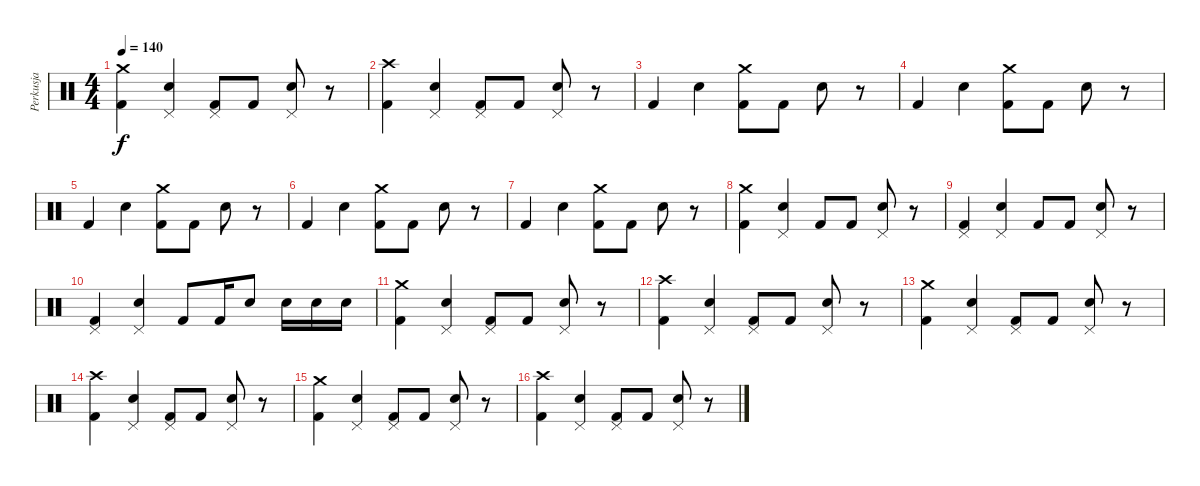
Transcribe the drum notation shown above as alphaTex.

\track ("Perkusja" "Perkusja") {instrument percussion}
\staff {score}
\articulation defaults
\ts (4 4)
\tempo 140
\clef neutral
\ks c
("Crash medium (hit)" "Kick (hit) 2").4{dy f} ("Pedal Hi-Hat (hit)" "Snare (hit) 2").4 ("Pedal Hi-Hat (hit)" "Kick (hit) 2").8 "Kick (hit) 2".8 ("Pedal Hi-Hat (hit)" "Snare (hit) 2").8 r.8 |
("Crash high (hit)" "Kick (hit) 2").4 ("Pedal Hi-Hat (hit)" "Snare (hit) 2").4 ("Pedal Hi-Hat (hit)" "Kick (hit) 2").8 "Kick (hit) 2".8 ("Pedal Hi-Hat (hit)" "Snare (hit) 2").8 r.8 |
"Kick (hit) 2".4 "Snare (hit) 2".4 ("Crash medium (hit)" "Kick (hit) 2").8 "Kick (hit) 2".8 "Snare (hit) 2".8 r.8 |
"Kick (hit) 2".4 "Snare (hit) 2".4 ("Crash medium (hit)" "Kick (hit) 2").8 "Kick (hit) 2".8 "Snare (hit) 2".8 r.8 |
"Kick (hit) 2".4 "Snare (hit) 2".4 ("Crash medium (hit)" "Kick (hit) 2").8 "Kick (hit) 2".8 "Snare (hit) 2".8 r.8 |
"Kick (hit) 2".4 "Snare (hit) 2".4 ("Crash medium (hit)" "Kick (hit) 2").8 "Kick (hit) 2".8 "Snare (hit) 2".8 r.8 |
"Kick (hit) 2".4 "Snare (hit) 2".4 ("Crash medium (hit)" "Kick (hit) 2").8 "Kick (hit) 2".8 "Snare (hit) 2".8 r.8 |
("Crash medium (hit)" "Kick (hit) 2").4 ("Pedal Hi-Hat (hit)" "Snare (hit) 2").4 "Kick (hit) 2".8 "Kick (hit) 2".8 ("Pedal Hi-Hat (hit)" "Snare (hit) 2").8 r.8 |
("Pedal Hi-Hat (hit)" "Kick (hit) 2").4 ("Pedal Hi-Hat (hit)" "Snare (hit) 2").4 "Kick (hit) 2".8 "Kick (hit) 2".8 ("Pedal Hi-Hat (hit)" "Snare (hit) 2").8 r.8 |
("Pedal Hi-Hat (hit)" "Kick (hit) 2").4 ("Pedal Hi-Hat (hit)" "Snare (hit) 2").4 "Kick (hit) 2".8 "Kick (hit) 2".16 "Snare (hit) 2".8 "Snare (hit) 2".16 "Snare (hit) 2".16 "Snare (hit) 2".16 |
("Crash medium (hit)" "Kick (hit) 2").4 ("Pedal Hi-Hat (hit)" "Snare (hit) 2").4 ("Pedal Hi-Hat (hit)" "Kick (hit) 2").8 "Kick (hit) 2".8 ("Pedal Hi-Hat (hit)" "Snare (hit) 2").8 r.8 |
("Crash high (hit)" "Kick (hit) 2").4 ("Pedal Hi-Hat (hit)" "Snare (hit) 2").4 ("Pedal Hi-Hat (hit)" "Kick (hit) 2").8 "Kick (hit) 2".8 ("Pedal Hi-Hat (hit)" "Snare (hit) 2").8 r.8 |
("Crash medium (hit)" "Kick (hit) 2").4 ("Pedal Hi-Hat (hit)" "Snare (hit) 2").4 ("Pedal Hi-Hat (hit)" "Kick (hit) 2").8 "Kick (hit) 2".8 ("Pedal Hi-Hat (hit)" "Snare (hit) 2").8 r.8 |
("Crash high (hit)" "Kick (hit) 2").4 ("Pedal Hi-Hat (hit)" "Snare (hit) 2").4 ("Pedal Hi-Hat (hit)" "Kick (hit) 2").8 "Kick (hit) 2".8 ("Pedal Hi-Hat (hit)" "Snare (hit) 2").8 r.8 |
("Crash medium (hit)" "Kick (hit) 2").4 ("Pedal Hi-Hat (hit)" "Snare (hit) 2").4 ("Pedal Hi-Hat (hit)" "Kick (hit) 2").8 "Kick (hit) 2".8 ("Pedal Hi-Hat (hit)" "Snare (hit) 2").8 r.8 |
("Crash high (hit)" "Kick (hit) 2").4 ("Pedal Hi-Hat (hit)" "Snare (hit) 2").4 ("Pedal Hi-Hat (hit)" "Kick (hit) 2").8 "Kick (hit) 2".8 ("Pedal Hi-Hat (hit)" "Snare (hit) 2").8 r.8
